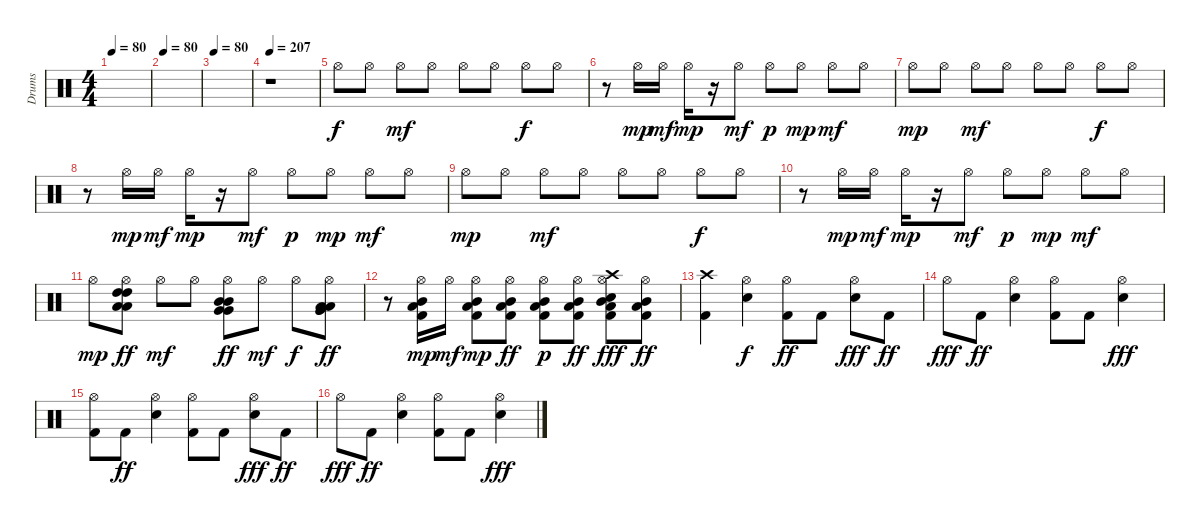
\track ("Drums" "Drums") {instrument percussion}
\staff {score}
\articulation defaults
\ts (4 4)
\tempo 80
\clef neutral
\ks c
|
\tempo 80
|
\tempo 80
|
\tempo 207
r.1 |
"Hi-Hat (open)".8 "Hi-Hat (open)".8 "Hi-Hat (open)".8{dy mf} "Hi-Hat (open)".8 "Hi-Hat (open)".8 "Hi-Hat (open)".8 "Hi-Hat (open)".8{dy f} "Hi-Hat (open)".8 |
r.8 "Hi-Hat (open)".16{dy mp} "Hi-Hat (open)".16{dy mf} "Hi-Hat (open)".16{dy mp} r.16 "Hi-Hat (open)".8{dy mf} "Hi-Hat (open)".8{dy p} "Hi-Hat (open)".8{dy mp} "Hi-Hat (open)".8{dy mf} "Hi-Hat (open)".8 |
"Hi-Hat (open)".8{dy mp} "Hi-Hat (open)".8 "Hi-Hat (open)".8{dy mf} "Hi-Hat (open)".8 "Hi-Hat (open)".8 "Hi-Hat (open)".8 "Hi-Hat (open)".8{dy f} "Hi-Hat (open)".8 |
r.8 "Hi-Hat (open)".16{dy mp} "Hi-Hat (open)".16{dy mf} "Hi-Hat (open)".16{dy mp} r.16 "Hi-Hat (open)".8{dy mf} "Hi-Hat (open)".8{dy p} "Hi-Hat (open)".8{dy mp} "Hi-Hat (open)".8{dy mf} "Hi-Hat (open)".8 |
"Hi-Hat (open)".8{dy mp} "Hi-Hat (open)".8 "Hi-Hat (open)".8{dy mf} "Hi-Hat (open)".8 "Hi-Hat (open)".8 "Hi-Hat (open)".8 "Hi-Hat (open)".8{dy f} "Hi-Hat (open)".8 |
r.8 "Hi-Hat (open)".16{dy mp} "Hi-Hat (open)".16{dy mf} "Hi-Hat (open)".16{dy mp} r.16 "Hi-Hat (open)".8{dy mf} "Hi-Hat (open)".8{dy p} "Hi-Hat (open)".8{dy mp} "Hi-Hat (open)".8{dy mf} "Hi-Hat (open)".8 |
"Hi-Hat (open)".8{dy mp} ("High Tom (hit)" "Low Tom (hit)" "Hi-Hat (open)" "High Tom (hit)" "Low Tom (hit)").8{dy ff} "Hi-Hat (open)".8{dy mf} "Hi-Hat (open)".8 ("Mid Tom (hit)" "Very Low Tom (hit)" "Hi-Hat (open)" "Mid Tom (hit)" "Very Low Tom (hit)").8{dy ff} "Hi-Hat (open)".8{dy mf} "Hi-Hat (open)".8{dy f} ("Very Low Tom (hit)" "Low Floor Tom (hit)" "Hi-Hat (open)" "Very Low Tom (hit)" "Low Floor Tom (hit)").8{dy ff} |
r.8 ("Kick (hit) 2" "Hi-Hat (open)" "Mid Tom (hit)" "Low Floor Tom (hit)").16{dy mp} "Hi-Hat (open)".16{dy mf} ("Kick (hit) 2" "Mid Tom (hit)" "Hi-Hat (open)" "Low Floor Tom (hit)").8{dy mp} ("Kick (hit) 2" "Hi-Hat (open)" "Mid Tom (hit)" "Low Floor Tom (hit)").8{dy ff} ("Kick (hit) 2" "Hi-Hat (open)" "Mid Tom (hit)" "Low Floor Tom (hit)").8{dy p} ("Kick (hit) 2" "Hi-Hat (open)" "Mid Tom (hit)" "Low Floor Tom (hit)").8{dy ff} ("Snare (hit) 2" "Crash high (hit)" "Kick (hit) 2" "Hi-Hat (open)" "Mid Tom (hit)" "Low Floor Tom (hit)").8{dy fff} ("Kick (hit) 2" "Hi-Hat (open)" "Mid Tom (hit)" "Low Floor Tom (hit)").8{dy ff} |
("Crash high (hit)" "Kick (hit) 2").4 ("Snare (hit) 2" "Hi-Hat (open)").4{dy f} ("Kick (hit) 2" "Hi-Hat (open)").8{dy ff} "Kick (hit) 2".8 ("Snare (hit) 2" "Hi-Hat (open)").8{dy fff} "Kick (hit) 2".8{dy ff} |
"Hi-Hat (open)".8{dy fff} "Kick (hit) 2".8{dy ff} ("Snare (hit) 2" "Hi-Hat (open)").4 ("Kick (hit) 2" "Hi-Hat (open)").8 "Kick (hit) 2".8 ("Snare (hit) 2" "Hi-Hat (open)").4{dy fff} |
("Kick (hit) 2" "Hi-Hat (open)").8 "Kick (hit) 2".8{dy ff} ("Snare (hit) 2" "Hi-Hat (open)").4 ("Kick (hit) 2" "Hi-Hat (open)").8 "Kick (hit) 2".8 ("Snare (hit) 2" "Hi-Hat (open)").8{dy fff} "Kick (hit) 2".8{dy ff} |
"Hi-Hat (open)".8{dy fff} "Kick (hit) 2".8{dy ff} ("Snare (hit) 2" "Hi-Hat (open)").4 ("Kick (hit) 2" "Hi-Hat (open)").8 "Kick (hit) 2".8 ("Snare (hit) 2" "Hi-Hat (open)").4{dy fff}
